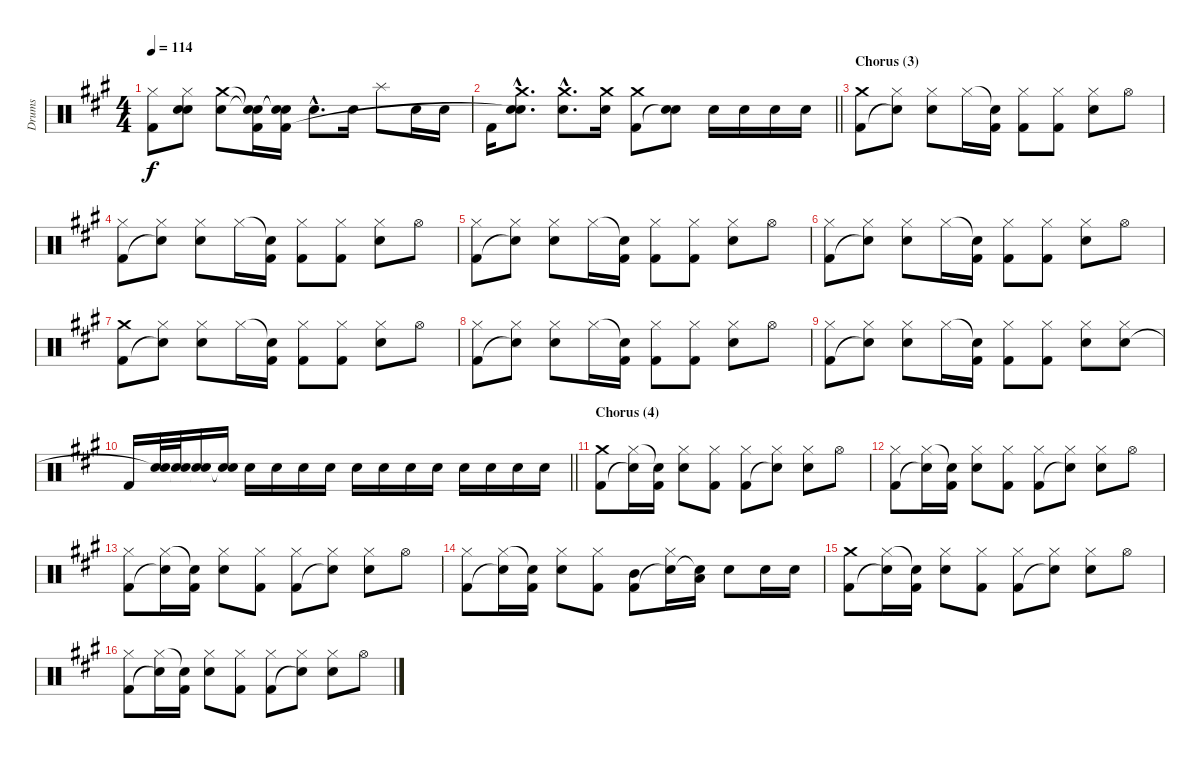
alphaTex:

\track ("Drums" "Drums") {instrument percussion}
\staff {score}
\articulation defaults
\ts (4 4)
\tempo 114
\clef neutral
\ks a
("Hi-Hat (closed)" "Kick (hit) 2").8{dy f} ("Hi-Hat (closed)" "Electric Snare (hit)" "Snare (hit)").8 ("Crash medium (hit)" "Electric Snare (hit)").8 ("Snare (hit)"{t} "Snare (hit)"{t} "Kick (hit) 2").16 ("Snare (hit)"{t} "Snare (hit)"{t} "Kick (hit) 2").16 "Electric Snare (hit)"{hac}.8{d} "Electric Snare (hit)".16 "Splash (hit)".8 "Electric Snare (hit)".16 "Electric Snare (hit)".16 |
\barLineRight lightlight "Kick (hit) 2".16
("Crash medium (hit)"{hac} "Electric Snare (hit)"{hac} "Snare (hit)"{hac t}).8{d} ("Crash medium (hit)"{hac} "Electric Snare (hit)"{hac}).8{d} ("Crash medium (hit)" "Electric Snare (hit)").16 ("Crash medium (hit)" "Kick (hit) 2").8 ("Electric Snare (hit)" "Snare (hit)"{t}).8 "Electric Snare (hit)".16 "Electric Snare (hit)".16 "Electric Snare (hit)".16 "Electric Snare (hit)".16 |
\section ("" "Chorus (3)")
("Crash medium (hit)" "Kick (hit) 2").8 ("Hi-Hat (closed)" "Snare (hit)"{t}).8 ("Hi-Hat (closed)" "Electric Snare (hit)").8 "Hi-Hat (closed)".16 ("Snare (hit)"{t} "Kick (hit) 2").16 ("Hi-Hat (closed)" "Kick (hit) 2").8 ("Hi-Hat (closed)" "Kick (hit) 2").8 ("Hi-Hat (closed)" "Electric Snare (hit)").8 "Hi-Hat (open)".8 |
("Hi-Hat (closed)" "Kick (hit) 2").8 ("Hi-Hat (closed)" "Snare (hit)"{t}).8 ("Hi-Hat (closed)" "Electric Snare (hit)").8 "Hi-Hat (closed)".16 ("Snare (hit)"{t} "Kick (hit) 2").16 ("Hi-Hat (closed)" "Kick (hit) 2").8 ("Hi-Hat (closed)" "Kick (hit) 2").8 ("Hi-Hat (closed)" "Electric Snare (hit)").8 "Hi-Hat (open)".8 |
("Hi-Hat (closed)" "Kick (hit) 2").8 ("Hi-Hat (closed)" "Snare (hit)"{t}).8 ("Hi-Hat (closed)" "Electric Snare (hit)").8 "Hi-Hat (closed)".16 ("Snare (hit)"{t} "Kick (hit) 2").16 ("Hi-Hat (closed)" "Kick (hit) 2").8 ("Hi-Hat (closed)" "Kick (hit) 2").8 ("Hi-Hat (closed)" "Electric Snare (hit)").8 "Hi-Hat (open)".8 |
("Hi-Hat (closed)" "Kick (hit) 2").8 ("Hi-Hat (closed)" "Snare (hit)"{t}).8 ("Hi-Hat (closed)" "Electric Snare (hit)").8 "Hi-Hat (closed)".16 ("Snare (hit)"{t} "Kick (hit) 2").16 ("Hi-Hat (closed)" "Kick (hit) 2").8 ("Hi-Hat (closed)" "Kick (hit) 2").8 ("Hi-Hat (closed)" "Electric Snare (hit)").8 "Hi-Hat (open)".8 |
("Crash medium (hit)" "Kick (hit) 2").8 ("Hi-Hat (closed)" "Snare (hit)"{t}).8 ("Hi-Hat (closed)" "Electric Snare (hit)").8 "Hi-Hat (closed)".16 ("Snare (hit)"{t} "Kick (hit) 2").16 ("Hi-Hat (closed)" "Kick (hit) 2").8 ("Hi-Hat (closed)" "Kick (hit) 2").8 ("Hi-Hat (closed)" "Electric Snare (hit)").8 "Hi-Hat (open)".8 |
("Hi-Hat (closed)" "Kick (hit) 2").8 ("Hi-Hat (closed)" "Snare (hit)"{t}).8 ("Hi-Hat (closed)" "Electric Snare (hit)").8 "Hi-Hat (closed)".16 ("Snare (hit)"{t} "Kick (hit) 2").16 ("Hi-Hat (closed)" "Kick (hit) 2").8 ("Hi-Hat (closed)" "Kick (hit) 2").8 ("Hi-Hat (closed)" "Electric Snare (hit)").8 "Hi-Hat (open)".8 |
("Hi-Hat (closed)" "Kick (hit) 2").8 ("Hi-Hat (closed)" "Snare (hit)"{t}).8 ("Hi-Hat (closed)" "Electric Snare (hit)").8 "Hi-Hat (closed)".16 ("Snare (hit)"{t} "Kick (hit) 2").16 ("Hi-Hat (closed)" "Kick (hit) 2").8 ("Hi-Hat (closed)" "Kick (hit) 2").8 ("Hi-Hat (closed)" "Electric Snare (hit)").8 ("Hi-Hat (closed)" "Electric Snare (hit)").8 |
\barLineRight lightlight "Kick (hit) 2".16
("Electric Snare (hit)" "Snare (hit)"{t}).32 ("Electric Snare (hit)" "Snare (hit)"{t}).32 ("Electric Snare (hit)" "Snare (hit)"{t}).16 ("Electric Snare (hit)" "Snare (hit)"{t}).16 "Electric Snare (hit)".16 "Electric Snare (hit)".16 "Electric Snare (hit)".16 "Electric Snare (hit)".16 "Electric Snare (hit)".16 "Electric Snare (hit)".16 "Electric Snare (hit)".16 "Electric Snare (hit)".16 "Electric Snare (hit)".16 "Electric Snare (hit)".16 "Electric Snare (hit)".16 "Electric Snare (hit)".16 |
\section ("" "Chorus (4)")
("Crash medium (hit)" "Kick (hit) 2").8 ("Hi-Hat (closed)" "Snare (hit)"{t}).16 ("Snare (hit)"{t} "Kick (hit) 2").16 ("Hi-Hat (closed)" "Electric Snare (hit)").8 ("Hi-Hat (closed)" "Kick (hit) 2").8 ("Hi-Hat (closed)" "Kick (hit) 2").8 ("Hi-Hat (closed)" "Snare (hit)"{t}).8 ("Hi-Hat (closed)" "Electric Snare (hit)").8 "Hi-Hat (open)".8 |
("Hi-Hat (closed)" "Kick (hit) 2").8 ("Hi-Hat (closed)" "Snare (hit)"{t}).16 ("Snare (hit)"{t} "Kick (hit) 2").16 ("Hi-Hat (closed)" "Electric Snare (hit)").8 ("Hi-Hat (closed)" "Kick (hit) 2").8 ("Hi-Hat (closed)" "Kick (hit) 2").8 ("Hi-Hat (closed)" "Snare (hit)"{t}).8 ("Hi-Hat (closed)" "Electric Snare (hit)").8 "Hi-Hat (open)".8 |
("Hi-Hat (closed)" "Kick (hit) 2").8 ("Hi-Hat (closed)" "Snare (hit)"{t}).16 ("Snare (hit)"{t} "Kick (hit) 2").16 ("Hi-Hat (closed)" "Electric Snare (hit)").8 ("Hi-Hat (closed)" "Kick (hit) 2").8 ("Hi-Hat (closed)" "Kick (hit) 2").8 ("Hi-Hat (closed)" "Snare (hit)"{t}).8 ("Hi-Hat (closed)" "Electric Snare (hit)").8 "Hi-Hat (open)".8 |
("Hi-Hat (closed)" "Kick (hit) 2").8 ("Hi-Hat (closed)" "Snare (hit)"{t}).16 ("Snare (hit)"{t} "Kick (hit) 2").16 ("Hi-Hat (closed)" "Electric Snare (hit)").8 ("Hi-Hat (closed)" "Kick (hit) 2").8 ("Mid Tom (hit)" "Kick (hit) 2").8 ("Hi-Hat (closed)" "Snare (hit)"{t}).16 ("Low Tom (hit)" "Snare (hit)"{t}).16 "Electric Snare (hit)".8 "Electric Snare (hit)".16 "Electric Snare (hit)".16 |
("Crash medium (hit)" "Kick (hit) 2").8 ("Hi-Hat (closed)" "Snare (hit)"{t}).16 ("Snare (hit)"{t} "Kick (hit) 2").16 ("Hi-Hat (closed)" "Electric Snare (hit)").8 ("Hi-Hat (closed)" "Kick (hit) 2").8 ("Hi-Hat (closed)" "Kick (hit) 2").8 ("Hi-Hat (closed)" "Snare (hit)"{t}).8 ("Hi-Hat (closed)" "Electric Snare (hit)").8 "Hi-Hat (open)".8 |
("Hi-Hat (closed)" "Kick (hit) 2").8 ("Hi-Hat (closed)" "Snare (hit)"{t}).16 ("Snare (hit)"{t} "Kick (hit) 2").16 ("Hi-Hat (closed)" "Electric Snare (hit)").8 ("Hi-Hat (closed)" "Kick (hit) 2").8 ("Hi-Hat (closed)" "Kick (hit) 2").8 ("Hi-Hat (closed)" "Snare (hit)"{t}).8 ("Hi-Hat (closed)" "Electric Snare (hit)").8 "Hi-Hat (open)".8
